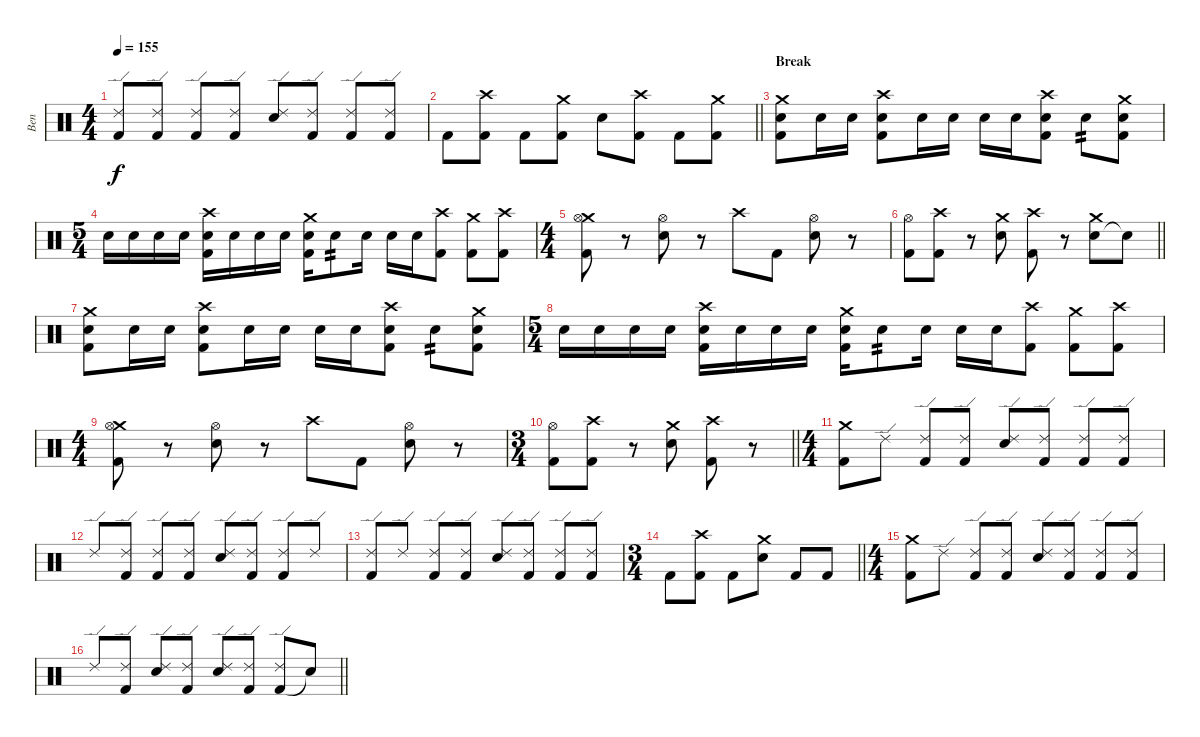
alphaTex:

\track ("Ben" "Ben") {instrument percussion}
\staff {score}
\articulation defaults
\ts (4 4)
\tempo 155
\clef neutral
\ks c
("Kick (hit) 2" "Ride (edge) 2").8{dy f} ("Kick (hit) 2" "Ride (edge) 2").8 ("Kick (hit) 2" "Ride (edge) 2").8 ("Kick (hit) 2" "Ride (edge) 2").8 ("Electric Snare (hit)" "Ride (edge) 2").8 ("Kick (hit) 2" "Ride (edge) 2").8 ("Kick (hit) 2" "Ride (edge) 2").8 ("Kick (hit) 2" "Ride (edge) 2").8 |
\barLineRight lightlight "Kick (hit) 2".8
("Kick (hit) 2" "Crash high (hit)").8 "Kick (hit) 2".8 ("Kick (hit) 2" "Crash medium (hit)").8 "Electric Snare (hit)".8 ("Kick (hit) 2" "Crash high (hit)").8 "Kick (hit) 2".8 ("Kick (hit) 2" "Crash medium (hit)").8 |
\section ("" "Break")
("Electric Snare (hit)" "Kick (hit) 2" "Crash medium (hit)").8 "Electric Snare (hit)".16 "Electric Snare (hit)".16 ("Electric Snare (hit)" "Kick (hit) 2" "Crash high (hit)").8 "Electric Snare (hit)".16 "Electric Snare (hit)".16 "Electric Snare (hit)".16 "Electric Snare (hit)".16 ("Electric Snare (hit)" "Kick (hit) 2" "Crash high (hit)").8 "Electric Snare (hit)".8{tp 2} ("Electric Snare (hit)" "Kick (hit) 2" "Crash medium (hit)").8 |
\ts (5 4)
"Electric Snare (hit)".16 "Electric Snare (hit)".16 "Electric Snare (hit)".16 "Electric Snare (hit)".16 ("Electric Snare (hit)" "Crash high (hit)" "Kick (hit) 2").16 "Electric Snare (hit)".16 "Electric Snare (hit)".16 "Electric Snare (hit)".16 ("Crash medium (hit)" "Electric Snare (hit)" "Kick (hit) 2").16 "Electric Snare (hit)".8{tp 2} "Electric Snare (hit)".16 "Electric Snare (hit)".16 "Electric Snare (hit)".16 ("Kick (hit) 2" "Crash high (hit)").8 ("Kick (hit) 2" "Crash medium (hit)").8 ("Kick (hit) 2" "Crash high (hit)").8 |
\ts (4 4)
("Kick (hit) 2" "Crash medium (hit)" "Hi-Hat (open)").8 r.8 ("Electric Snare (hit)" "Hi-Hat (open)").8 r.8 "Crash high (hit)".8 "Kick (hit) 2".8 ("Electric Snare (hit)" "Hi-Hat (open)").8 r.8 |
\barLineRight lightlight
("Kick (hit) 2" "Hi-Hat (open)").8 ("Kick (hit) 2" "Crash high (hit)").8 r.8 ("Electric Snare (hit)" "Crash medium (hit)").8 ("Kick (hit) 2" "Crash high (hit)").8 r.8 ("Electric Snare (hit)" "Crash medium (hit)").8 "Electric Snare (hit)"{t}.8 |
("Electric Snare (hit)" "Kick (hit) 2" "Crash medium (hit)").8 "Electric Snare (hit)".16 "Electric Snare (hit)".16 ("Electric Snare (hit)" "Kick (hit) 2" "Crash high (hit)").8 "Electric Snare (hit)".16 "Electric Snare (hit)".16 "Electric Snare (hit)".16 "Electric Snare (hit)".16 ("Electric Snare (hit)" "Kick (hit) 2" "Crash high (hit)").8 "Electric Snare (hit)".8{tp 2} ("Electric Snare (hit)" "Kick (hit) 2" "Crash medium (hit)").8 |
\ts (5 4)
"Electric Snare (hit)".16 "Electric Snare (hit)".16 "Electric Snare (hit)".16 "Electric Snare (hit)".16 ("Electric Snare (hit)" "Crash high (hit)" "Kick (hit) 2").16 "Electric Snare (hit)".16 "Electric Snare (hit)".16 "Electric Snare (hit)".16 ("Crash medium (hit)" "Electric Snare (hit)" "Kick (hit) 2").16 "Electric Snare (hit)".8{tp 2} "Electric Snare (hit)".16 "Electric Snare (hit)".16 "Electric Snare (hit)".16 ("Kick (hit) 2" "Crash high (hit)").8 ("Kick (hit) 2" "Crash medium (hit)").8 ("Kick (hit) 2" "Crash high (hit)").8 |
\ts (4 4)
("Kick (hit) 2" "Crash medium (hit)" "Hi-Hat (open)").8 r.8 ("Electric Snare (hit)" "Hi-Hat (open)").8 r.8 "Crash high (hit)".8 "Kick (hit) 2".8 ("Electric Snare (hit)" "Hi-Hat (open)").8 r.8 |
\ts (3 4)
\barLineRight lightlight
("Kick (hit) 2" "Hi-Hat (open)").8 ("Kick (hit) 2" "Crash high (hit)").8 r.8 ("Electric Snare (hit)" "Crash medium (hit)").8 ("Kick (hit) 2" "Crash high (hit)").8 r.8 |
\ts (4 4)
("Kick (hit) 2" "Crash medium (hit)").8 "Ride (edge) 2".8 ("Kick (hit) 2" "Ride (edge) 2").8 ("Kick (hit) 2" "Ride (edge) 2").8 ("Electric Snare (hit)" "Ride (edge) 2").8 ("Kick (hit) 2" "Ride (edge) 2").8 ("Kick (hit) 2" "Ride (edge) 2").8 ("Kick (hit) 2" "Ride (edge) 2").8 |
"Ride (edge) 2".8 ("Kick (hit) 2" "Ride (edge) 2").8 ("Kick (hit) 2" "Ride (edge) 2").8 ("Kick (hit) 2" "Ride (edge) 2").8 ("Electric Snare (hit)" "Ride (edge) 2").8 ("Kick (hit) 2" "Ride (edge) 2").8 ("Kick (hit) 2" "Ride (edge) 2").8 "Ride (edge) 2".8 |
("Kick (hit) 2" "Ride (edge) 2").8 "Ride (edge) 2".8 ("Kick (hit) 2" "Ride (edge) 2").8 ("Kick (hit) 2" "Ride (edge) 2").8 ("Electric Snare (hit)" "Ride (edge) 2").8 ("Kick (hit) 2" "Ride (edge) 2").8 ("Kick (hit) 2" "Ride (edge) 2").8 ("Kick (hit) 2" "Ride (edge) 2").8 |
\ts (3 4)
\barLineRight lightlight "Kick (hit) 2".8
("Kick (hit) 2" "Crash high (hit)").8 "Kick (hit) 2".8 ("Electric Snare (hit)" "Crash medium (hit)").8 "Kick (hit) 2".8 "Kick (hit) 2".8 |
\ts (4 4)
("Kick (hit) 2" "Crash medium (hit)").8 "Ride (edge) 2".8 ("Kick (hit) 2" "Ride (edge) 2").8 ("Kick (hit) 2" "Ride (edge) 2").8 ("Electric Snare (hit)" "Ride (edge) 2").8 ("Kick (hit) 2" "Ride (edge) 2").8 ("Kick (hit) 2" "Ride (edge) 2").8 ("Kick (hit) 2" "Ride (edge) 2").8 |
\barLineRight lightlight "Ride (edge) 2".8
("Kick (hit) 2" "Ride (edge) 2").8 ("Electric Snare (hit)" "Ride (edge) 2").8 ("Kick (hit) 2" "Ride (edge) 2").8 ("Electric Snare (hit)" "Ride (edge) 2").8 ("Kick (hit) 2" "Ride (edge) 2").8 ("Kick (hit) 2" "Ride (edge) 2").8 "Snare (hit)"{t}.8
